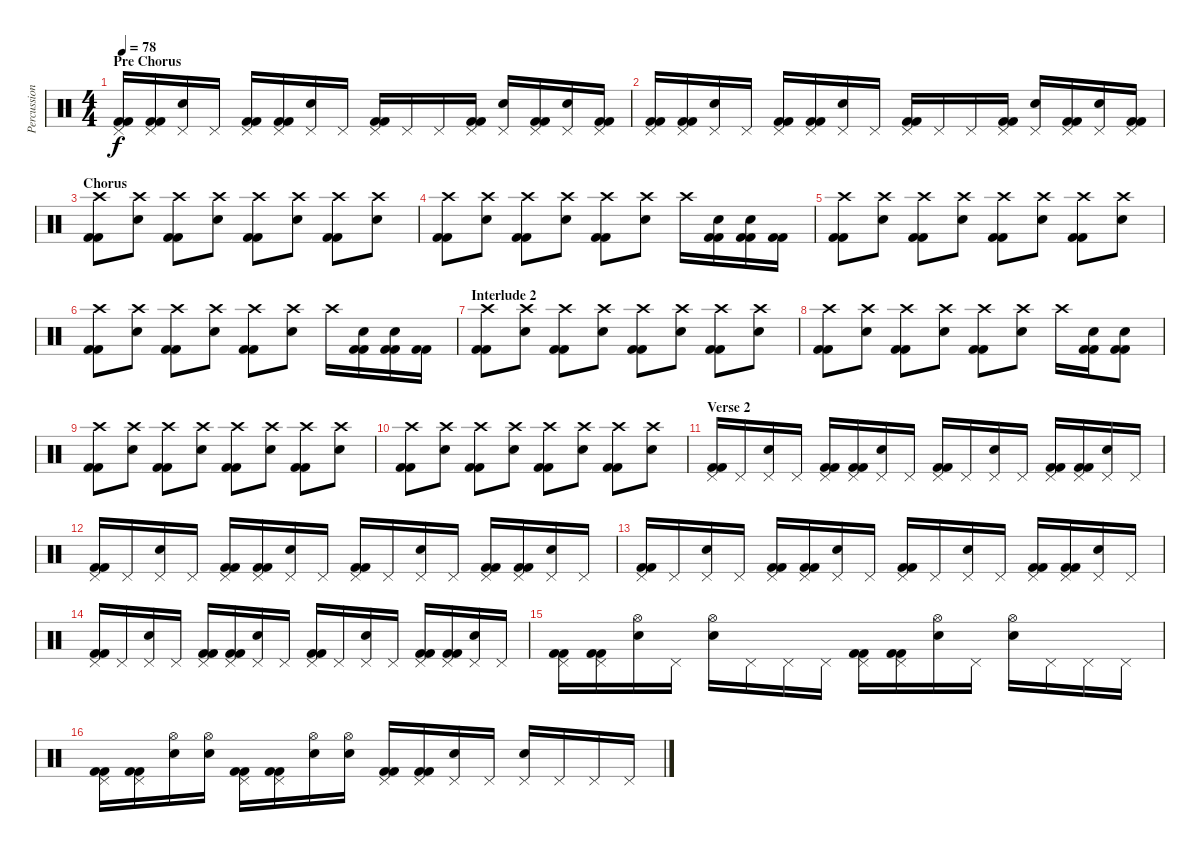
\track ("Percussion" "Percussion") {instrument percussion}
\staff {score}
\articulation defaults
\ts (4 4)
\section ("" "Pre Chorus")
\tempo 78
\clef neutral
\ks c
("Pedal Hi-Hat (hit)" "Kick (hit) 2" "Kick (hit) 2").16{dy f} ("Pedal Hi-Hat (hit)" "Kick (hit) 2" "Kick (hit) 2").16 ("Pedal Hi-Hat (hit)" "Electric Snare (hit)").16 "Pedal Hi-Hat (hit)".16 ("Pedal Hi-Hat (hit)" "Kick (hit) 2" "Kick (hit) 2").16 ("Pedal Hi-Hat (hit)" "Kick (hit) 2" "Kick (hit) 2").16 ("Pedal Hi-Hat (hit)" "Electric Snare (hit)").16 "Pedal Hi-Hat (hit)".16 ("Pedal Hi-Hat (hit)" "Kick (hit) 2" "Kick (hit) 2").16 "Pedal Hi-Hat (hit)".16 "Pedal Hi-Hat (hit)".16 ("Pedal Hi-Hat (hit)" "Kick (hit) 2" "Kick (hit) 2").16 ("Pedal Hi-Hat (hit)" "Electric Snare (hit)").16 ("Pedal Hi-Hat (hit)" "Kick (hit) 2" "Kick (hit) 2").16 ("Pedal Hi-Hat (hit)" "Electric Snare (hit)").16 ("Pedal Hi-Hat (hit)" "Kick (hit) 2" "Kick (hit) 2").16 |
("Pedal Hi-Hat (hit)" "Kick (hit) 2" "Kick (hit) 2").16 ("Pedal Hi-Hat (hit)" "Kick (hit) 2" "Kick (hit) 2").16 ("Pedal Hi-Hat (hit)" "Electric Snare (hit)").16 "Pedal Hi-Hat (hit)".16 ("Pedal Hi-Hat (hit)" "Kick (hit) 2" "Kick (hit) 2").16 ("Pedal Hi-Hat (hit)" "Kick (hit) 2" "Kick (hit) 2").16 ("Pedal Hi-Hat (hit)" "Electric Snare (hit)").16 "Pedal Hi-Hat (hit)".16 ("Pedal Hi-Hat (hit)" "Kick (hit) 2" "Kick (hit) 2").16 "Pedal Hi-Hat (hit)".16 "Pedal Hi-Hat (hit)".16 ("Pedal Hi-Hat (hit)" "Kick (hit) 2" "Kick (hit) 2").16 ("Pedal Hi-Hat (hit)" "Electric Snare (hit)").16 ("Pedal Hi-Hat (hit)" "Kick (hit) 2" "Kick (hit) 2").16 ("Pedal Hi-Hat (hit)" "Electric Snare (hit)").16 ("Pedal Hi-Hat (hit)" "Kick (hit) 2" "Kick (hit) 2").16 |
\section ("" "Chorus")
("Crash high (hit)" "Kick (hit) 2" "Kick (hit) 2").8 ("Crash high (hit)" "Electric Snare (hit)").8 ("Crash high (hit)" "Kick (hit) 2" "Kick (hit) 2").8 ("Crash high (hit)" "Electric Snare (hit)").8 ("Crash high (hit)" "Kick (hit) 2" "Kick (hit) 2").8 ("Crash high (hit)" "Electric Snare (hit)").8 ("Crash high (hit)" "Kick (hit) 2" "Kick (hit) 2").8 ("Crash high (hit)" "Electric Snare (hit)").8 |
("Crash high (hit)" "Kick (hit) 2" "Kick (hit) 2").8 ("Crash high (hit)" "Electric Snare (hit)").8 ("Crash high (hit)" "Kick (hit) 2" "Kick (hit) 2").8 ("Crash high (hit)" "Electric Snare (hit)").8 ("Crash high (hit)" "Kick (hit) 2" "Kick (hit) 2").8 ("Crash high (hit)" "Electric Snare (hit)").8 "Crash high (hit)".16 ("Electric Snare (hit)" "Kick (hit) 2" "Kick (hit) 2").16 ("Electric Snare (hit)" "Kick (hit) 2" "Kick (hit) 2").16 ("Kick (hit) 2" "Kick (hit) 2").16 |
("Crash high (hit)" "Kick (hit) 2" "Kick (hit) 2").8 ("Crash high (hit)" "Electric Snare (hit)").8 ("Crash high (hit)" "Kick (hit) 2" "Kick (hit) 2").8 ("Crash high (hit)" "Electric Snare (hit)").8 ("Crash high (hit)" "Kick (hit) 2" "Kick (hit) 2").8 ("Crash high (hit)" "Electric Snare (hit)").8 ("Crash high (hit)" "Kick (hit) 2" "Kick (hit) 2").8 ("Crash high (hit)" "Electric Snare (hit)").8 |
("Crash high (hit)" "Kick (hit) 2" "Kick (hit) 2").8 ("Crash high (hit)" "Electric Snare (hit)").8 ("Crash high (hit)" "Kick (hit) 2" "Kick (hit) 2").8 ("Crash high (hit)" "Electric Snare (hit)").8 ("Crash high (hit)" "Kick (hit) 2" "Kick (hit) 2").8 ("Crash high (hit)" "Electric Snare (hit)").8 "Crash high (hit)".16 ("Electric Snare (hit)" "Kick (hit) 2" "Kick (hit) 2").16 ("Electric Snare (hit)" "Kick (hit) 2" "Kick (hit) 2").16 ("Kick (hit) 2" "Kick (hit) 2").16 |
\section ("" "Interlude 2")
("Crash high (hit)" "Kick (hit) 2" "Kick (hit) 2").8 ("Crash high (hit)" "Electric Snare (hit)").8 ("Crash high (hit)" "Kick (hit) 2" "Kick (hit) 2").8 ("Crash high (hit)" "Electric Snare (hit)").8 ("Crash high (hit)" "Kick (hit) 2" "Kick (hit) 2").8 ("Crash high (hit)" "Electric Snare (hit)").8 ("Crash high (hit)" "Kick (hit) 2" "Kick (hit) 2").8 ("Crash high (hit)" "Electric Snare (hit)").8 |
("Crash high (hit)" "Kick (hit) 2" "Kick (hit) 2").8 ("Crash high (hit)" "Electric Snare (hit)").8 ("Crash high (hit)" "Kick (hit) 2" "Kick (hit) 2").8 ("Crash high (hit)" "Electric Snare (hit)").8 ("Crash high (hit)" "Kick (hit) 2" "Kick (hit) 2").8 ("Crash high (hit)" "Electric Snare (hit)").8 "Crash high (hit)".16 ("Electric Snare (hit)" "Kick (hit) 2" "Kick (hit) 2").16 ("Electric Snare (hit)" "Kick (hit) 2" "Kick (hit) 2").8 |
("Crash high (hit)" "Kick (hit) 2" "Kick (hit) 2").8 ("Crash high (hit)" "Electric Snare (hit)").8 ("Crash high (hit)" "Kick (hit) 2" "Kick (hit) 2").8 ("Crash high (hit)" "Electric Snare (hit)").8 ("Crash high (hit)" "Kick (hit) 2" "Kick (hit) 2").8 ("Crash high (hit)" "Electric Snare (hit)").8 ("Crash high (hit)" "Kick (hit) 2" "Kick (hit) 2").8 ("Crash high (hit)" "Electric Snare (hit)").8 |
("Crash high (hit)" "Kick (hit) 2" "Kick (hit) 2").8 ("Crash high (hit)" "Electric Snare (hit)").8 ("Crash high (hit)" "Kick (hit) 2" "Kick (hit) 2").8 ("Crash high (hit)" "Electric Snare (hit)").8 ("Crash high (hit)" "Kick (hit) 2" "Kick (hit) 2").8 ("Crash high (hit)" "Electric Snare (hit)").8 ("Crash high (hit)" "Kick (hit) 2" "Kick (hit) 2").8 ("Crash high (hit)" "Electric Snare (hit)").8 |
\section ("" "Verse 2")
("Pedal Hi-Hat (hit)" "Kick (hit) 2" "Kick (hit) 2").16 "Pedal Hi-Hat (hit)".16 ("Pedal Hi-Hat (hit)" "Electric Snare (hit)").16 "Pedal Hi-Hat (hit)".16 ("Pedal Hi-Hat (hit)" "Kick (hit) 2" "Kick (hit) 2").16 ("Pedal Hi-Hat (hit)" "Kick (hit) 2" "Kick (hit) 2").16 ("Pedal Hi-Hat (hit)" "Electric Snare (hit)").16 "Pedal Hi-Hat (hit)".16 ("Pedal Hi-Hat (hit)" "Kick (hit) 2" "Kick (hit) 2").16 "Pedal Hi-Hat (hit)".16 ("Pedal Hi-Hat (hit)" "Electric Snare (hit)").16 "Pedal Hi-Hat (hit)".16 ("Pedal Hi-Hat (hit)" "Kick (hit) 2" "Kick (hit) 2").16 ("Pedal Hi-Hat (hit)" "Kick (hit) 2" "Kick (hit) 2").16 ("Pedal Hi-Hat (hit)" "Electric Snare (hit)").16 "Pedal Hi-Hat (hit)".16 |
("Pedal Hi-Hat (hit)" "Kick (hit) 2" "Kick (hit) 2").16 "Pedal Hi-Hat (hit)".16 ("Pedal Hi-Hat (hit)" "Electric Snare (hit)").16 "Pedal Hi-Hat (hit)".16 ("Pedal Hi-Hat (hit)" "Kick (hit) 2" "Kick (hit) 2").16 ("Pedal Hi-Hat (hit)" "Kick (hit) 2" "Kick (hit) 2").16 ("Pedal Hi-Hat (hit)" "Electric Snare (hit)").16 "Pedal Hi-Hat (hit)".16 ("Pedal Hi-Hat (hit)" "Kick (hit) 2" "Kick (hit) 2").16 "Pedal Hi-Hat (hit)".16 ("Pedal Hi-Hat (hit)" "Electric Snare (hit)").16 "Pedal Hi-Hat (hit)".16 ("Pedal Hi-Hat (hit)" "Kick (hit) 2" "Kick (hit) 2").16 ("Pedal Hi-Hat (hit)" "Kick (hit) 2" "Kick (hit) 2").16 ("Pedal Hi-Hat (hit)" "Electric Snare (hit)").16 "Pedal Hi-Hat (hit)".16 |
("Pedal Hi-Hat (hit)" "Kick (hit) 2" "Kick (hit) 2").16 "Pedal Hi-Hat (hit)".16 ("Pedal Hi-Hat (hit)" "Electric Snare (hit)").16 "Pedal Hi-Hat (hit)".16 ("Pedal Hi-Hat (hit)" "Kick (hit) 2" "Kick (hit) 2").16 ("Pedal Hi-Hat (hit)" "Kick (hit) 2" "Kick (hit) 2").16 ("Pedal Hi-Hat (hit)" "Electric Snare (hit)").16 "Pedal Hi-Hat (hit)".16 ("Pedal Hi-Hat (hit)" "Kick (hit) 2" "Kick (hit) 2").16 "Pedal Hi-Hat (hit)".16 ("Pedal Hi-Hat (hit)" "Electric Snare (hit)").16 "Pedal Hi-Hat (hit)".16 ("Pedal Hi-Hat (hit)" "Kick (hit) 2" "Kick (hit) 2").16 ("Pedal Hi-Hat (hit)" "Kick (hit) 2" "Kick (hit) 2").16 ("Pedal Hi-Hat (hit)" "Electric Snare (hit)").16 "Pedal Hi-Hat (hit)".16 |
("Pedal Hi-Hat (hit)" "Kick (hit) 2" "Kick (hit) 2").16 "Pedal Hi-Hat (hit)".16 ("Pedal Hi-Hat (hit)" "Electric Snare (hit)").16 "Pedal Hi-Hat (hit)".16 ("Pedal Hi-Hat (hit)" "Kick (hit) 2" "Kick (hit) 2").16 ("Pedal Hi-Hat (hit)" "Kick (hit) 2" "Kick (hit) 2").16 ("Pedal Hi-Hat (hit)" "Electric Snare (hit)").16 "Pedal Hi-Hat (hit)".16 ("Pedal Hi-Hat (hit)" "Kick (hit) 2" "Kick (hit) 2").16 "Pedal Hi-Hat (hit)".16 ("Pedal Hi-Hat (hit)" "Electric Snare (hit)").16 "Pedal Hi-Hat (hit)".16 ("Pedal Hi-Hat (hit)" "Kick (hit) 2" "Kick (hit) 2").16 ("Pedal Hi-Hat (hit)" "Kick (hit) 2" "Kick (hit) 2").16 ("Pedal Hi-Hat (hit)" "Electric Snare (hit)").16 "Pedal Hi-Hat (hit)".16 |
("Pedal Hi-Hat (hit)" "Kick (hit) 2" "Kick (hit) 2").16 ("Pedal Hi-Hat (hit)" "Kick (hit) 2" "Kick (hit) 2").16 ("Hi-Hat (open)" "Electric Snare (hit)").16 "Pedal Hi-Hat (hit)".16 ("Hi-Hat (open)" "Electric Snare (hit)").16 "Pedal Hi-Hat (hit)".16 "Pedal Hi-Hat (hit)".16 "Pedal Hi-Hat (hit)".16 ("Pedal Hi-Hat (hit)" "Kick (hit) 2" "Kick (hit) 2").16 ("Pedal Hi-Hat (hit)" "Kick (hit) 2" "Kick (hit) 2").16 ("Hi-Hat (open)" "Electric Snare (hit)").16 "Pedal Hi-Hat (hit)".16 ("Hi-Hat (open)" "Electric Snare (hit)").16 "Pedal Hi-Hat (hit)".16 "Pedal Hi-Hat (hit)".16 "Pedal Hi-Hat (hit)".16 |
("Pedal Hi-Hat (hit)" "Kick (hit) 2" "Kick (hit) 2").16 ("Pedal Hi-Hat (hit)" "Kick (hit) 2" "Kick (hit) 2").16 ("Hi-Hat (open)" "Electric Snare (hit)").16 ("Hi-Hat (open)" "Electric Snare (hit)").16 ("Pedal Hi-Hat (hit)" "Kick (hit) 2" "Kick (hit) 2").16 ("Pedal Hi-Hat (hit)" "Kick (hit) 2" "Kick (hit) 2").16 ("Hi-Hat (open)" "Electric Snare (hit)").16 ("Hi-Hat (open)" "Electric Snare (hit)").16 ("Pedal Hi-Hat (hit)" "Kick (hit) 2" "Kick (hit) 2").16 ("Pedal Hi-Hat (hit)" "Kick (hit) 2" "Kick (hit) 2").16 ("Pedal Hi-Hat (hit)" "Electric Snare (hit)").16 "Pedal Hi-Hat (hit)".16 ("Pedal Hi-Hat (hit)" "Electric Snare (hit)").16 "Pedal Hi-Hat (hit)".16 "Pedal Hi-Hat (hit)".16 "Pedal Hi-Hat (hit)".16
